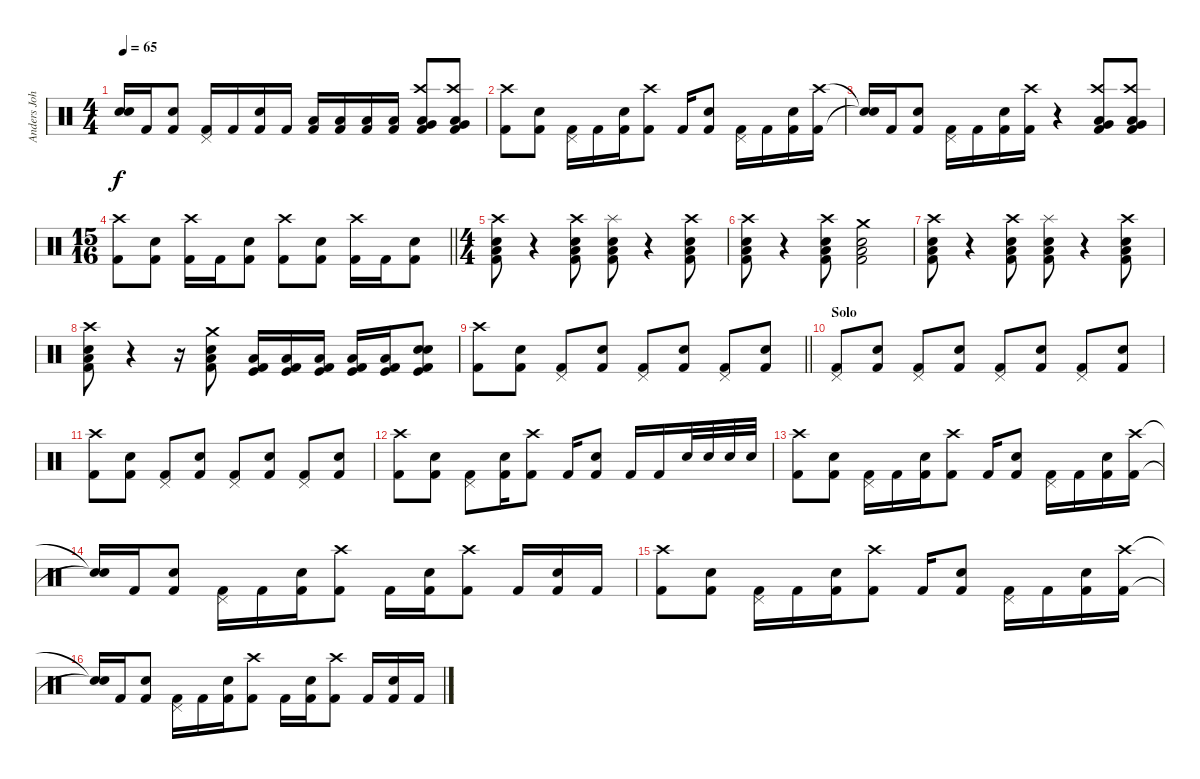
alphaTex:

\track ("Anders Johansson" "Anders Joh") {instrument percussion}
\staff {score}
\articulation defaults
\ts (4 4)
\tempo 65
\clef neutral
\ks c
("Snare (hit)"{t} "Snare (hit)"{t}).16{dy f} "Kick (hit) 2".16 ("Electric Snare (hit)" "Kick (hit) 2").8 ("Pedal Hi-Hat (hit)" "Kick (hit) 2").16 "Kick (hit) 2".16 ("Electric Snare (hit)" "Kick (hit) 2").16 "Kick (hit) 2".16 ("Low Floor Tom (hit)" "Kick (hit) 2").16 ("Low Floor Tom (hit)" "Kick (hit) 2").16 ("Low Floor Tom (hit)" "Kick (hit) 2").16 ("Low Floor Tom (hit)" "Kick (hit) 2").16 ("Crash high (hit)" "Very Low Tom (hit)" "Low Floor Tom (hit)" "Kick (hit) 2").8 ("Crash high (hit)" "Very Low Tom (hit)" "Low Floor Tom (hit)" "Kick (hit) 2").8 |
("Crash high (hit)" "Kick (hit) 2").8 ("Electric Snare (hit)" "Kick (hit) 2").8 ("Pedal Hi-Hat (hit)" "Kick (hit) 2").16 "Kick (hit) 2".16 ("Electric Snare (hit)" "Kick (hit) 2").16 ("Crash high (hit)" "Kick (hit) 2").8 "Kick (hit) 2".16 ("Electric Snare (hit)" "Kick (hit) 2").8 ("Pedal Hi-Hat (hit)" "Kick (hit) 2").16 "Kick (hit) 2".16 ("Electric Snare (hit)" "Kick (hit) 2").16 ("Crash high (hit)" "Kick (hit) 2").16 |
("Snare (hit)"{t} "Snare (hit)"{t}).16 "Kick (hit) 2".16 ("Electric Snare (hit)" "Kick (hit) 2").8 ("Pedal Hi-Hat (hit)" "Kick (hit) 2").16 "Kick (hit) 2".16 ("Electric Snare (hit)" "Kick (hit) 2").16 ("Crash high (hit)" "Kick (hit) 2").16 r.4 ("Crash high (hit)" "Very Low Tom (hit)" "Low Floor Tom (hit)" "Kick (hit) 2").8 ("Crash high (hit)" "Very Low Tom (hit)" "Low Floor Tom (hit)" "Kick (hit) 2").8 |
\ts (15 16)
\barLineRight lightlight
("Crash high (hit)" "Kick (hit) 2").8 ("Electric Snare (hit)" "Kick (hit) 2").8 ("Crash high (hit)" "Kick (hit) 2").16 "Kick (hit) 2".16 ("Electric Snare (hit)" "Kick (hit) 2").8 ("Crash high (hit)" "Kick (hit) 2").8 ("Electric Snare (hit)" "Kick (hit) 2").8 ("Crash high (hit)" "Kick (hit) 2").16 "Kick (hit) 2".16 ("Electric Snare (hit)" "Kick (hit) 2").8 |
\ts (4 4)
("Crash high (hit)" "Low Floor Tom (hit)" "Electric Snare (hit)" "Kick (hit) 2").8 r.4 ("Crash high (hit)" "Low Floor Tom (hit)" "Electric Snare (hit)" "Kick (hit) 2").8 ("Splash (hit)" "Low Floor Tom (hit)" "Electric Snare (hit)" "Kick (hit) 2").8 r.4 ("Crash high (hit)" "Low Floor Tom (hit)" "Electric Snare (hit)" "Kick (hit) 2").8 |
("Crash high (hit)" "Low Floor Tom (hit)" "Electric Snare (hit)" "Kick (hit) 2").8 r.4 ("Crash high (hit)" "Low Floor Tom (hit)" "Electric Snare (hit)" "Kick (hit) 2").8 ("Crash medium (hit)" "Low Floor Tom (hit)" "Electric Snare (hit)" "Kick (hit) 2").2 |
("Crash high (hit)" "Low Floor Tom (hit)" "Electric Snare (hit)" "Kick (hit) 2").8 r.4 ("Crash high (hit)" "Low Floor Tom (hit)" "Electric Snare (hit)" "Kick (hit) 2").8 ("Splash (hit)" "Low Floor Tom (hit)" "Electric Snare (hit)" "Kick (hit) 2").8 r.4 ("Crash high (hit)" "Low Floor Tom (hit)" "Electric Snare (hit)" "Kick (hit) 2").8 |
("Crash high (hit)" "Low Floor Tom (hit)" "Electric Snare (hit)" "Kick (hit) 2").8 r.4 r.16 ("Crash medium (hit)" "Low Floor Tom (hit)" "Electric Snare (hit)" "Kick (hit) 2").8 ("Low Floor Tom (hit)" "Kick (hit)" "Kick (hit) 2").16 ("Low Floor Tom (hit)" "Kick (hit)" "Kick (hit) 2").16 ("Low Floor Tom (hit)" "Kick (hit)" "Kick (hit) 2").16 ("Low Floor Tom (hit)" "Kick (hit)" "Kick (hit) 2").16 ("Low Floor Tom (hit)" "Kick (hit)" "Kick (hit) 2").16 ("Snare (hit) 2" "Snare (hit) 2" "Kick (hit)" "Kick (hit) 2").8 |
\barLineRight lightlight
("Crash high (hit)" "Kick (hit) 2").8 ("Electric Snare (hit)" "Kick (hit) 2").8 ("Pedal Hi-Hat (hit)" "Kick (hit) 2").8 ("Electric Snare (hit)" "Kick (hit) 2").8 ("Pedal Hi-Hat (hit)" "Kick (hit) 2").8 ("Electric Snare (hit)" "Kick (hit) 2").8 ("Pedal Hi-Hat (hit)" "Kick (hit) 2").8 ("Electric Snare (hit)" "Kick (hit) 2").8 |
\section ("" "Solo")
("Pedal Hi-Hat (hit)" "Kick (hit) 2").8 ("Electric Snare (hit)" "Kick (hit) 2").8 ("Pedal Hi-Hat (hit)" "Kick (hit) 2").8 ("Electric Snare (hit)" "Kick (hit) 2").8 ("Pedal Hi-Hat (hit)" "Kick (hit) 2").8 ("Electric Snare (hit)" "Kick (hit) 2").8 ("Pedal Hi-Hat (hit)" "Kick (hit) 2").8 ("Electric Snare (hit)" "Kick (hit) 2").8 |
("Crash high (hit)" "Kick (hit) 2").8 ("Electric Snare (hit)" "Kick (hit) 2").8 ("Pedal Hi-Hat (hit)" "Kick (hit) 2").8 ("Electric Snare (hit)" "Kick (hit) 2").8 ("Pedal Hi-Hat (hit)" "Kick (hit) 2").8 ("Electric Snare (hit)" "Kick (hit) 2").8 ("Pedal Hi-Hat (hit)" "Kick (hit) 2").8 ("Electric Snare (hit)" "Kick (hit) 2").8 |
("Crash high (hit)" "Kick (hit) 2").8 ("Electric Snare (hit)" "Kick (hit) 2").8 ("Pedal Hi-Hat (hit)" "Kick (hit) 2").8 ("Electric Snare (hit)" "Kick (hit) 2").16 ("Crash high (hit)" "Kick (hit) 2").8 "Kick (hit) 2".16 ("Electric Snare (hit)" "Kick (hit) 2").8 "Kick (hit) 2".16 "Kick (hit) 2".16 "Electric Snare (hit)".32 "Electric Snare (hit)".32 "Electric Snare (hit)".32 "Electric Snare (hit)".32 |
("Crash high (hit)" "Kick (hit) 2").8 ("Electric Snare (hit)" "Kick (hit) 2").8 ("Pedal Hi-Hat (hit)" "Kick (hit) 2").16 "Kick (hit) 2".16 ("Electric Snare (hit)" "Kick (hit) 2").16 ("Crash high (hit)" "Kick (hit) 2").8 "Kick (hit) 2".16 ("Electric Snare (hit)" "Kick (hit) 2").8 ("Pedal Hi-Hat (hit)" "Kick (hit) 2").16 "Kick (hit) 2".16 ("Electric Snare (hit)" "Kick (hit) 2").16 ("Crash high (hit)" "Kick (hit) 2").16 |
("Snare (hit)"{t} "Snare (hit)"{t}).16 "Kick (hit) 2".16 ("Electric Snare (hit)" "Kick (hit) 2").8 ("Pedal Hi-Hat (hit)" "Kick (hit) 2").16 "Kick (hit) 2".16 ("Electric Snare (hit)" "Kick (hit) 2").16 ("Crash high (hit)" "Kick (hit) 2").8 "Kick (hit) 2".16 ("Electric Snare (hit)" "Kick (hit) 2").16 ("Crash high (hit)" "Kick (hit) 2").8 "Kick (hit) 2".16 ("Electric Snare (hit)" "Kick (hit) 2").16 "Kick (hit) 2".16 |
("Crash high (hit)" "Kick (hit) 2").8 ("Electric Snare (hit)" "Kick (hit) 2").8 ("Pedal Hi-Hat (hit)" "Kick (hit) 2").16 "Kick (hit) 2".16 ("Electric Snare (hit)" "Kick (hit) 2").16 ("Crash high (hit)" "Kick (hit) 2").8 "Kick (hit) 2".16 ("Electric Snare (hit)" "Kick (hit) 2").8 ("Pedal Hi-Hat (hit)" "Kick (hit) 2").16 "Kick (hit) 2".16 ("Electric Snare (hit)" "Kick (hit) 2").16 ("Crash high (hit)" "Kick (hit) 2").16 |
("Snare (hit)"{t} "Snare (hit)"{t}).16 "Kick (hit) 2".16 ("Electric Snare (hit)" "Kick (hit) 2").8 ("Pedal Hi-Hat (hit)" "Kick (hit) 2").16 "Kick (hit) 2".16 ("Electric Snare (hit)" "Kick (hit) 2").16 ("Crash high (hit)" "Kick (hit) 2").8 "Kick (hit) 2".16 ("Electric Snare (hit)" "Kick (hit) 2").16 ("Crash high (hit)" "Kick (hit) 2").8 "Kick (hit) 2".16 ("Electric Snare (hit)" "Kick (hit) 2").16 "Kick (hit) 2".16
